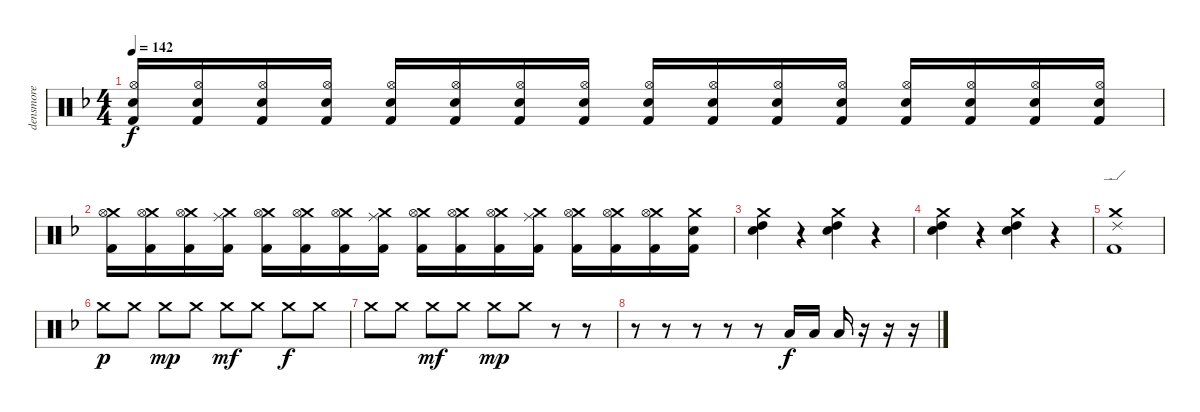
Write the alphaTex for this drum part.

\track ("densmore" "densmore") {instrument percussion}
\staff {score}
\articulation defaults
\ts (4 4)
\tempo 142
\clef neutral
\ks f
("Electric Snare (hit)" "Hi-Hat (open)" "Kick (hit) 2").16{dy f} ("Electric Snare (hit)" "Hi-Hat (open)" "Kick (hit) 2").16 ("Electric Snare (hit)" "Hi-Hat (open)" "Kick (hit) 2").16 ("Electric Snare (hit)" "Hi-Hat (open)" "Kick (hit) 2").16 ("Electric Snare (hit)" "Hi-Hat (open)" "Kick (hit) 2").16 ("Electric Snare (hit)" "Hi-Hat (open)" "Kick (hit) 2").16 ("Electric Snare (hit)" "Hi-Hat (open)" "Kick (hit) 2").16 ("Electric Snare (hit)" "Hi-Hat (open)" "Kick (hit) 2").16 ("Electric Snare (hit)" "Hi-Hat (open)" "Kick (hit) 2").16 ("Electric Snare (hit)" "Hi-Hat (open)" "Kick (hit) 2").16 ("Electric Snare (hit)" "Hi-Hat (open)" "Kick (hit) 2").16 ("Electric Snare (hit)" "Hi-Hat (open)" "Kick (hit) 2").16 ("Electric Snare (hit)" "Hi-Hat (open)" "Kick (hit) 2").16 ("Electric Snare (hit)" "Hi-Hat (open)" "Kick (hit) 2").16 ("Electric Snare (hit)" "Hi-Hat (open)" "Kick (hit) 2").16 ("Electric Snare (hit)" "Hi-Hat (open)" "Kick (hit) 2").16 |
("Crash medium (hit)" "Hi-Hat (open)" "Kick (hit) 2").16 ("Crash medium (hit)" "Hi-Hat (open)" "Kick (hit) 2").16 ("Crash medium (hit)" "Hi-Hat (open)" "Kick (hit) 2").16 ("Crash medium (hit)" "Ride (middle)" "Kick (hit) 2").16 ("Crash medium (hit)" "Hi-Hat (open)" "Kick (hit) 2").16 ("Crash medium (hit)" "Hi-Hat (open)" "Kick (hit) 2").16 ("Crash medium (hit)" "Hi-Hat (open)" "Kick (hit) 2").16 ("Crash medium (hit)" "Ride (middle)" "Kick (hit) 2").16 ("Crash medium (hit)" "Hi-Hat (open)" "Kick (hit) 2").16 ("Crash medium (hit)" "Hi-Hat (open)" "Kick (hit) 2").16 ("Crash medium (hit)" "Hi-Hat (open)" "Kick (hit) 2").16 ("Crash medium (hit)" "Ride (middle)" "Kick (hit) 2").16 ("Crash medium (hit)" "Hi-Hat (open)" "Kick (hit) 2").16 ("Crash medium (hit)" "Hi-Hat (open)" "Kick (hit) 2").16 ("Crash medium (hit)" "Hi-Hat (open)" "Kick (hit) 2").16 ("Crash medium (hit)" "Electric Snare (hit)" "Kick (hit) 2").16 |
("Electric Snare (hit)" "High Tom (hit)" "Crash medium (hit)").4 r.4 ("Electric Snare (hit)" "High Tom (hit)" "Crash medium (hit)").4 r.4 |
("Electric Snare (hit)" "High Tom (hit)" "Crash medium (hit)").4 r.4 ("Electric Snare (hit)" "High Tom (hit)" "Crash medium (hit)").4 r.4 |
("Kick (hit) 2" "Ride (edge) 2" "Crash medium (hit)").1 |
"Crash medium (hit)".8{dy p} "Crash medium (hit)".8 "Crash medium (hit)".8{dy mp} "Crash medium (hit)".8 "Crash medium (hit)".8{dy mf} "Crash medium (hit)".8 "Crash medium (hit)".8{dy f} "Crash medium (hit)".8 |
\section ("" "")
"Crash medium (hit)".8 "Crash medium (hit)".8 "Crash medium (hit)".8{dy mf} "Crash medium (hit)".8 "Crash medium (hit)".8{dy mp} "Crash medium (hit)".8 r.8 r.8 |
\section ("" "")
r.8 r.8 r.8 r.8 r.8 "Low Tom (hit)".16{dy f} "Low Tom (hit)".16 "Low Tom (hit)".16 r.16 r.16 r.16
